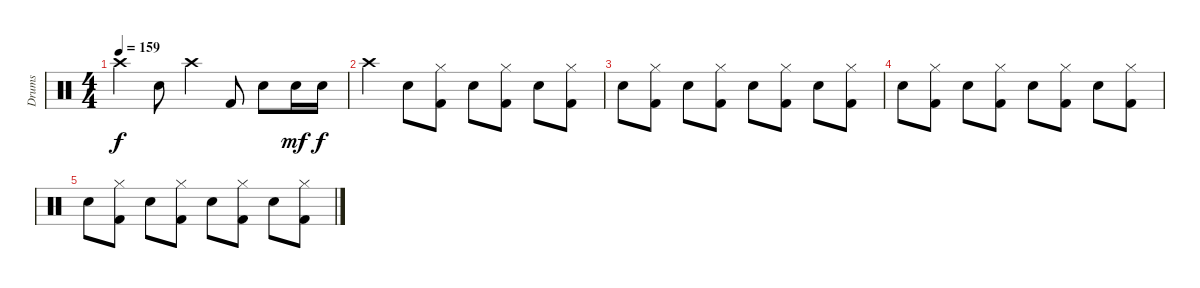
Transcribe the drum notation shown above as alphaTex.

\track ("Drums" "Drums") {instrument percussion}
\staff {score}
\articulation defaults
\ts (4 4)
\tempo 159
\clef neutral
\ks c "Crash high (hit)".4{dy f} "Electric Snare (hit)".8 "Crash high (hit)".4 "Kick (hit) 2".8 "Electric Snare (hit)".8 "Electric Snare (hit)".16{dy mf} "Electric Snare (hit)".16{dy f}
|
"Crash high (hit)".4 "Electric Snare (hit)".8 ("Kick (hit) 2" "Hi-Hat (closed)").8 "Electric Snare (hit)".8 ("Kick (hit) 2" "Hi-Hat (closed)").8 "Electric Snare (hit)".8 ("Kick (hit) 2" "Hi-Hat (closed)").8 |
"Electric Snare (hit)".8 ("Kick (hit) 2" "Hi-Hat (closed)").8 "Electric Snare (hit)".8 ("Kick (hit) 2" "Hi-Hat (closed)").8 "Electric Snare (hit)".8 ("Kick (hit) 2" "Hi-Hat (closed)").8 "Electric Snare (hit)".8 ("Kick (hit) 2" "Hi-Hat (closed)").8 |
"Electric Snare (hit)".8 ("Kick (hit) 2" "Hi-Hat (closed)").8 "Electric Snare (hit)".8 ("Kick (hit) 2" "Hi-Hat (closed)").8 "Electric Snare (hit)".8 ("Kick (hit) 2" "Hi-Hat (closed)").8 "Electric Snare (hit)".8 ("Kick (hit) 2" "Hi-Hat (closed)").8 |
"Electric Snare (hit)".8 ("Kick (hit) 2" "Hi-Hat (closed)").8 "Electric Snare (hit)".8 ("Kick (hit) 2" "Hi-Hat (closed)").8 "Electric Snare (hit)".8 ("Kick (hit) 2" "Hi-Hat (closed)").8 "Electric Snare (hit)".8 ("Kick (hit) 2" "Hi-Hat (closed)").8
